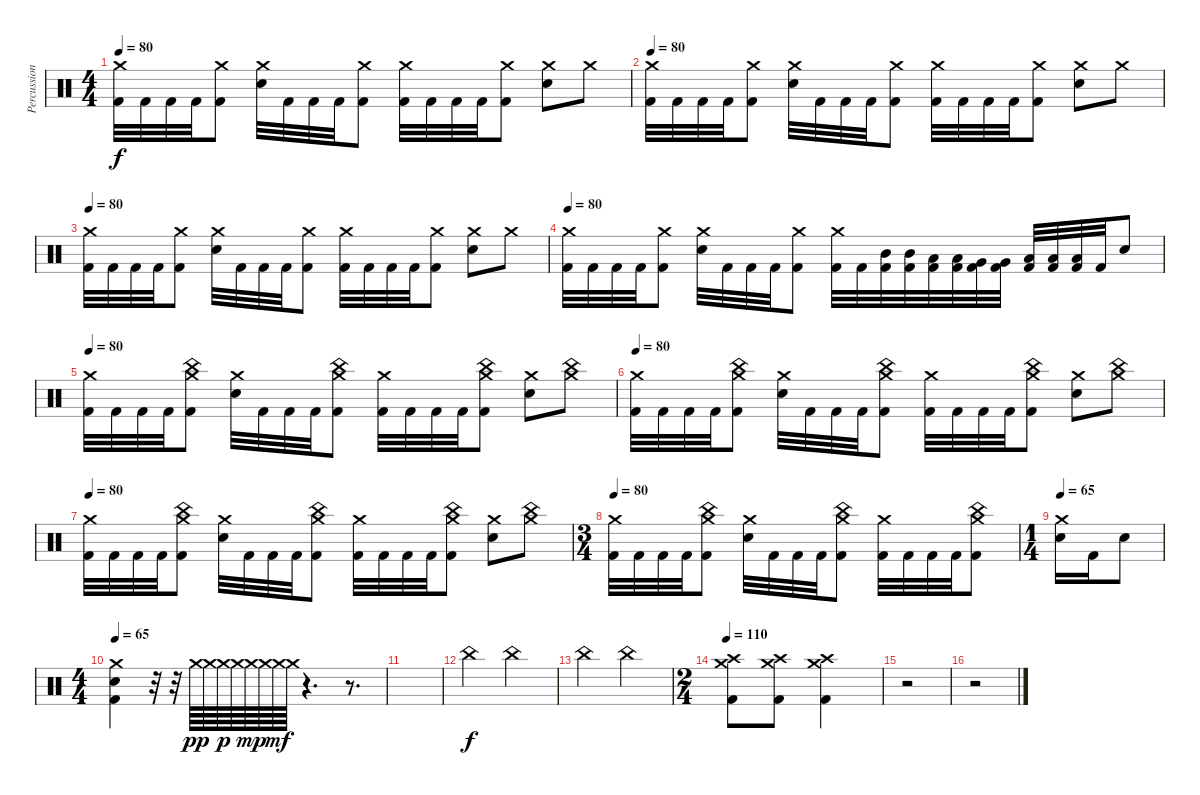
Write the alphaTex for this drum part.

\track ("Percussion" "Percussion") {instrument percussion}
\staff {score}
\articulation defaults
\ts (4 4)
\tempo 80
\clef neutral
\ks c
("Crash medium (hit)" "Kick (hit) 2").32{dy f} "Kick (hit) 2".32 "Kick (hit) 2".32 "Kick (hit) 2".32 ("Crash medium (hit)" "Kick (hit) 2").8 ("Crash medium (hit)" "Snare (hit) 2").32 "Kick (hit) 2".32 "Kick (hit) 2".32 "Kick (hit) 2".32 ("Crash medium (hit)" "Kick (hit) 2").8 ("Crash medium (hit)" "Kick (hit) 2").32 "Kick (hit) 2".32 "Kick (hit) 2".32 "Kick (hit) 2".32 ("Crash medium (hit)" "Kick (hit) 2").8 ("Crash medium (hit)" "Snare (hit) 2").8 "Crash medium (hit)".8 |
\tempo 80
("Crash medium (hit)" "Kick (hit) 2").32 "Kick (hit) 2".32 "Kick (hit) 2".32 "Kick (hit) 2".32 ("Crash medium (hit)" "Kick (hit) 2").8 ("Crash medium (hit)" "Snare (hit) 2").32 "Kick (hit) 2".32 "Kick (hit) 2".32 "Kick (hit) 2".32 ("Crash medium (hit)" "Kick (hit) 2").8 ("Crash medium (hit)" "Kick (hit) 2").32 "Kick (hit) 2".32 "Kick (hit) 2".32 "Kick (hit) 2".32 ("Crash medium (hit)" "Kick (hit) 2").8 ("Crash medium (hit)" "Snare (hit) 2").8 "Crash medium (hit)".8 |
\tempo 80
("Crash medium (hit)" "Kick (hit) 2").32 "Kick (hit) 2".32 "Kick (hit) 2".32 "Kick (hit) 2".32 ("Crash medium (hit)" "Kick (hit) 2").8 ("Crash medium (hit)" "Snare (hit) 2").32 "Kick (hit) 2".32 "Kick (hit) 2".32 "Kick (hit) 2".32 ("Crash medium (hit)" "Kick (hit) 2").8 ("Crash medium (hit)" "Kick (hit) 2").32 "Kick (hit) 2".32 "Kick (hit) 2".32 "Kick (hit) 2".32 ("Crash medium (hit)" "Kick (hit) 2").8 ("Crash medium (hit)" "Snare (hit) 2").8 "Crash medium (hit)".8 |
\tempo 80
("Crash medium (hit)" "Kick (hit) 2").32 "Kick (hit) 2".32 "Kick (hit) 2".32 "Kick (hit) 2".32 ("Crash medium (hit)" "Kick (hit) 2").8 ("Crash medium (hit)" "Snare (hit) 2").32 "Kick (hit) 2".32 "Kick (hit) 2".32 "Kick (hit) 2".32 ("Crash medium (hit)" "Kick (hit) 2").8 ("Crash medium (hit)" "Kick (hit) 2").32 "Kick (hit) 2".32 ("Mid Tom (hit)" "Kick (hit) 2").32 ("Mid Tom (hit)" "Kick (hit) 2").32 ("Low Tom (hit)" "Kick (hit) 2").32 ("Low Tom (hit)" "Kick (hit) 2").32 ("Very Low Tom (hit)" "Kick (hit) 2").32 ("Very Low Tom (hit)" "Kick (hit) 2").32 ("Low Floor Tom (hit)" "Kick (hit) 2").32 ("Low Floor Tom (hit)" "Kick (hit) 2").32 ("Low Floor Tom (hit)" "Kick (hit) 2").32 "Kick (hit) 2".32 "Snare (hit) 2".8 |
\tempo 80
("Crash medium (hit)" "Kick (hit) 2").32 "Kick (hit) 2".32 "Kick (hit) 2".32 "Kick (hit) 2".32 ("Crash medium (hit)" "China (hit)" "Kick (hit) 2").8 ("Crash medium (hit)" "Snare (hit) 2").32 "Kick (hit) 2".32 "Kick (hit) 2".32 "Kick (hit) 2".32 ("Crash medium (hit)" "China (hit)" "Kick (hit) 2").8 ("Crash medium (hit)" "Kick (hit) 2").32 "Kick (hit) 2".32 "Kick (hit) 2".32 "Kick (hit) 2".32 ("Crash medium (hit)" "China (hit)" "Kick (hit) 2").8 ("Crash medium (hit)" "Snare (hit) 2").8 ("Crash medium (hit)" "China (hit)").8 |
\tempo 80
("Crash medium (hit)" "Kick (hit) 2").32 "Kick (hit) 2".32 "Kick (hit) 2".32 "Kick (hit) 2".32 ("Crash medium (hit)" "China (hit)" "Kick (hit) 2").8 ("Crash medium (hit)" "Snare (hit) 2").32 "Kick (hit) 2".32 "Kick (hit) 2".32 "Kick (hit) 2".32 ("Crash medium (hit)" "China (hit)" "Kick (hit) 2").8 ("Crash medium (hit)" "Kick (hit) 2").32 "Kick (hit) 2".32 "Kick (hit) 2".32 "Kick (hit) 2".32 ("Crash medium (hit)" "China (hit)" "Kick (hit) 2").8 ("Crash medium (hit)" "Snare (hit) 2").8 ("Crash medium (hit)" "China (hit)").8 |
\tempo 80
("Crash medium (hit)" "Kick (hit) 2").32 "Kick (hit) 2".32 "Kick (hit) 2".32 "Kick (hit) 2".32 ("Crash medium (hit)" "China (hit)" "Kick (hit) 2").8 ("Crash medium (hit)" "Snare (hit) 2").32 "Kick (hit) 2".32 "Kick (hit) 2".32 "Kick (hit) 2".32 ("Crash medium (hit)" "China (hit)" "Kick (hit) 2").8 ("Crash medium (hit)" "Kick (hit) 2").32 "Kick (hit) 2".32 "Kick (hit) 2".32 "Kick (hit) 2".32 ("Crash medium (hit)" "China (hit)" "Kick (hit) 2").8 ("Crash medium (hit)" "Snare (hit) 2").8 ("Crash medium (hit)" "China (hit)").8 |
\ts (3 4)
\tempo 80
("Crash medium (hit)" "Kick (hit) 2").32 "Kick (hit) 2".32 "Kick (hit) 2".32 "Kick (hit) 2".32 ("Crash medium (hit)" "China (hit)" "Kick (hit) 2").8 ("Crash medium (hit)" "Snare (hit) 2").32 "Kick (hit) 2".32 "Kick (hit) 2".32 "Kick (hit) 2".32 ("Crash medium (hit)" "China (hit)" "Kick (hit) 2").8 ("Crash medium (hit)" "Kick (hit) 2").32 "Kick (hit) 2".32 "Kick (hit) 2".32 "Kick (hit) 2".32 ("Crash medium (hit)" "China (hit)" "Kick (hit) 2").8 |
\ts (1 4)
\tempo 65
("Crash medium (hit)" "Snare (hit) 2").16 "Kick (hit) 2".16 "Snare (hit) 2".8 |
\ts (4 4)
\tempo 65
("Crash medium (hit)" "Snare (hit) 2" "Kick (hit) 2").4 r.32 r.32 "Crash medium (hit)".64{dy pp} "Crash medium (hit)".64 "Crash medium (hit)".64{dy p} "Crash medium (hit)".64 "Crash medium (hit)".64{dy mp} "Crash medium (hit)".64 "Crash medium (hit)".64{dy mf} "Crash medium (hit)".64 r.4{d} r.8{d} |
|
"China (hit)".2{dy f} "China (hit)".2 |
"China (hit)".2 "China (hit)".2 |
\ts (2 4)
\tempo 100
\tempo 110
("Crash medium (hit)" "Crash high (hit)" "Kick (hit) 2").8 ("Crash medium (hit)" "Crash high (hit)" "Kick (hit) 2").8 ("Crash medium (hit)" "Crash high (hit)" "Kick (hit) 2").4 |
r.2 |
r.2
